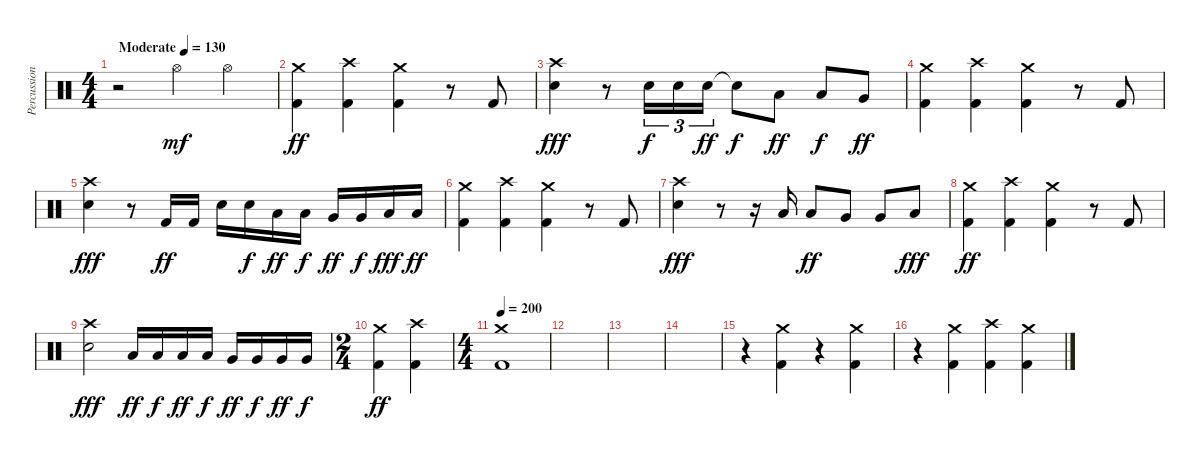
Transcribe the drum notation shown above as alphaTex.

\track ("Percussions" "Percussion") {instrument percussion}
\staff {score}
\articulation defaults
\ts (4 4)
\tempo (130 "Moderate")
\clef neutral
\ks c
r.2{dy mf} "Hi-Hat (open)".4 "Hi-Hat (open)".4 |
("Crash medium (hit)" "Kick (hit) 2").4{dy ff} ("Crash high (hit)" "Kick (hit) 2").4 ("Crash medium (hit)" "Kick (hit) 2").4 r.8 "Kick (hit) 2".8 |
("Crash high (hit)" "Electric Snare (hit)").4{dy fff} r.8 "Electric Snare (hit)".16{tu (3 2) dy f} "Electric Snare (hit)".16{tu (3 2)} "Electric Snare (hit)".16{tu (3 2) dy ff} "Snare (hit)"{t}.8{dy f} "Low Tom (hit)".8{dy ff} "Low Tom (hit)".8{dy f} "Very Low Tom (hit)".8{dy ff} |
("Crash medium (hit)" "Kick (hit) 2").4 ("Crash high (hit)" "Kick (hit) 2").4 ("Crash medium (hit)" "Kick (hit) 2").4 r.8 "Kick (hit) 2".8 |
("Crash high (hit)" "Electric Snare (hit)").4{dy fff} r.8 "Kick (hit) 2".16{dy ff} "Kick (hit) 2".16 "Electric Snare (hit)".16 "Electric Snare (hit)".16{dy f} "Low Tom (hit)".16{dy ff} "Low Tom (hit)".16{dy f} "Very Low Tom (hit)".16{dy ff} "Very Low Tom (hit)".16{dy f} "Low Floor Tom (hit)".16{dy fff} "Low Floor Tom (hit)".16{dy ff} |
("Crash medium (hit)" "Kick (hit) 2").4 ("Crash high (hit)" "Kick (hit) 2").4 ("Crash medium (hit)" "Kick (hit) 2").4 r.8 "Kick (hit) 2".8 |
("Crash high (hit)" "Electric Snare (hit)").4{dy fff} r.8 r.16 "Low Tom (hit)".16 "Low Tom (hit)".8{dy ff} "Very Low Tom (hit)".8 "Very Low Tom (hit)".8 "Low Floor Tom (hit)".8{dy fff} |
("Crash medium (hit)" "Kick (hit) 2").4{dy ff} ("Crash high (hit)" "Kick (hit) 2").4 ("Crash medium (hit)" "Kick (hit) 2").4 r.8 "Kick (hit) 2".8 |
("Crash high (hit)" "Electric Snare (hit)").2{dy fff} "Low Tom (hit)".16{dy ff} "Low Tom (hit)".16{dy f} "Low Tom (hit)".16{dy ff} "Low Tom (hit)".16{dy f} "Very Low Tom (hit)".16{dy ff} "Very Low Tom (hit)".16{dy f} "Very Low Tom (hit)".16{dy ff} "Very Low Tom (hit)".16{dy f} |
\ts (2 4)
("Crash medium (hit)" "Kick (hit) 2").4{dy ff} ("Crash high (hit)" "Kick (hit) 2").4 |
\ts (4 4)
\tempo 200
("Crash medium (hit)" "Kick (hit) 2").1 |
|
|
|
r.4 ("Crash medium (hit)" "Kick (hit) 2").4 r.4 ("Crash medium (hit)" "Kick (hit) 2").4 |
r.4 ("Crash medium (hit)" "Kick (hit) 2").4 ("Crash high (hit)" "Kick (hit) 2").4 ("Crash medium (hit)" "Kick (hit) 2").4
